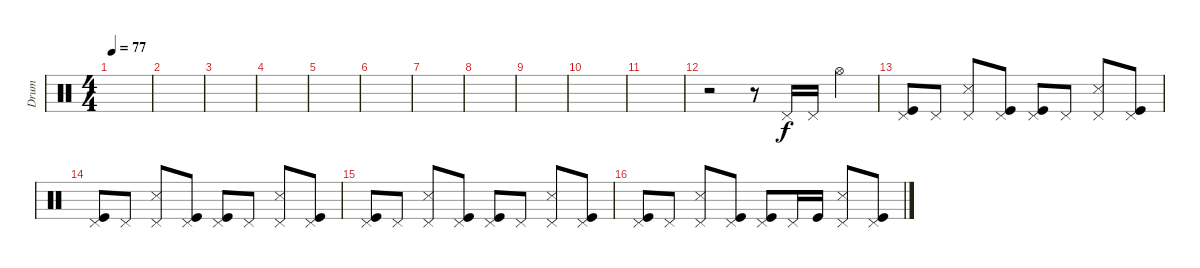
\track ("Drum" "Drum") {instrument percussion}
\staff {score}
\articulation defaults
\ts (4 4)
\tempo 77
\clef neutral
\ks c
|
|
|
|
|
|
|
|
|
|
|
r.2 r.8 "Pedal Hi-Hat (hit)".16 "Pedal Hi-Hat (hit)".16 "Hi-Hat (open)".4 |
("Pedal Hi-Hat (hit)" "Kick (hit)").8 "Pedal Hi-Hat (hit)".8 ("Pedal Hi-Hat (hit)" "Snare (side stick) 3").8 ("Pedal Hi-Hat (hit)" "Kick (hit)").8 ("Pedal Hi-Hat (hit)" "Kick (hit)").8 "Pedal Hi-Hat (hit)".8 ("Pedal Hi-Hat (hit)" "Snare (side stick) 3").8 ("Pedal Hi-Hat (hit)" "Kick (hit)").8 |
("Pedal Hi-Hat (hit)" "Kick (hit)").8 "Pedal Hi-Hat (hit)".8 ("Pedal Hi-Hat (hit)" "Snare (side stick) 3").8 ("Pedal Hi-Hat (hit)" "Kick (hit)").8 ("Pedal Hi-Hat (hit)" "Kick (hit)").8 "Pedal Hi-Hat (hit)".8 ("Pedal Hi-Hat (hit)" "Snare (side stick) 3").8 ("Pedal Hi-Hat (hit)" "Kick (hit)").8 |
("Pedal Hi-Hat (hit)" "Kick (hit)").8 "Pedal Hi-Hat (hit)".8 ("Pedal Hi-Hat (hit)" "Snare (side stick) 3").8 ("Pedal Hi-Hat (hit)" "Kick (hit)").8 ("Pedal Hi-Hat (hit)" "Kick (hit)").8 "Pedal Hi-Hat (hit)".8 ("Pedal Hi-Hat (hit)" "Snare (side stick) 3").8 ("Pedal Hi-Hat (hit)" "Kick (hit)").8 |
("Pedal Hi-Hat (hit)" "Kick (hit)").8 "Pedal Hi-Hat (hit)".8 ("Pedal Hi-Hat (hit)" "Snare (side stick) 3").8 ("Pedal Hi-Hat (hit)" "Kick (hit)").8 ("Pedal Hi-Hat (hit)" "Kick (hit)").8 "Pedal Hi-Hat (hit)".16 "Kick (hit)".16 ("Pedal Hi-Hat (hit)" "Snare (side stick) 3").8 ("Pedal Hi-Hat (hit)" "Kick (hit)").8
